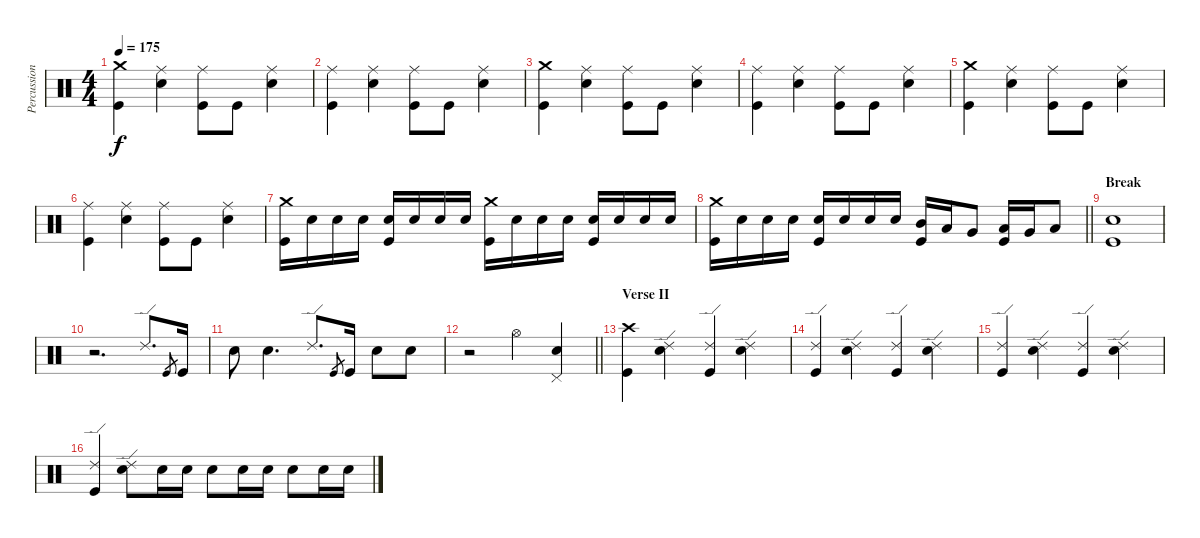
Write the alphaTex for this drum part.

\track ("Percussion" "Percussion") {instrument percussion}
\staff {score}
\articulation defaults
\ts (4 4)
\tempo 175
\clef neutral
\ks c
("Crash medium (hit)" "Kick (hit)").4{dy f} ("Ride (middle)" "Electric Snare (hit)").4 ("Ride (middle)" "Kick (hit)").8 "Kick (hit)".8 ("Ride (middle)" "Electric Snare (hit)").4 |
("Ride (middle)" "Kick (hit)").4 ("Ride (middle)" "Electric Snare (hit)").4 ("Ride (middle)" "Kick (hit)").8 "Kick (hit)".8 ("Ride (middle)" "Electric Snare (hit)").4 |
("Crash medium (hit)" "Kick (hit)").4 ("Ride (middle)" "Electric Snare (hit)").4 ("Ride (middle)" "Kick (hit)").8 "Kick (hit)".8 ("Ride (middle)" "Electric Snare (hit)").4 |
("Ride (middle)" "Kick (hit)").4 ("Ride (middle)" "Electric Snare (hit)").4 ("Ride (middle)" "Kick (hit)").8 "Kick (hit)".8 ("Ride (middle)" "Electric Snare (hit)").4 |
("Crash medium (hit)" "Kick (hit)").4 ("Ride (middle)" "Electric Snare (hit)").4 ("Ride (middle)" "Kick (hit)").8 "Kick (hit)".8 ("Ride (middle)" "Electric Snare (hit)").4 |
("Ride (middle)" "Kick (hit)").4 ("Ride (middle)" "Electric Snare (hit)").4 ("Ride (middle)" "Kick (hit)").8 "Kick (hit)".8 ("Ride (middle)" "Electric Snare (hit)").4 |
("Crash medium (hit)" "Kick (hit)").16 "Electric Snare (hit)".16 "Electric Snare (hit)".16 "Electric Snare (hit)".16 ("Electric Snare (hit)" "Kick (hit)").16 "Electric Snare (hit)".16 "Electric Snare (hit)".16 "Electric Snare (hit)".16 ("Crash medium (hit)" "Kick (hit)").16 "Electric Snare (hit)".16 "Electric Snare (hit)".16 "Electric Snare (hit)".16 ("Electric Snare (hit)" "Kick (hit)").16 "Electric Snare (hit)".16 "Electric Snare (hit)".16 "Electric Snare (hit)".16 |
\barLineRight lightlight
("Crash medium (hit)" "Kick (hit)").16 "Electric Snare (hit)".16 "Electric Snare (hit)".16 "Electric Snare (hit)".16 ("Electric Snare (hit)" "Kick (hit)").16 "Electric Snare (hit)".16 "Electric Snare (hit)".16 "Electric Snare (hit)".16 ("Mid Tom (hit)" "Kick (hit)").16 "Low Tom (hit)".16 "Very Low Tom (hit)".8 ("Low Tom (hit)" "Kick (hit)").16 "Very Low Tom (hit)".16 "Low Floor Tom (hit)".8 |
\section ("" "Break")
("Electric Snare (hit)" "Kick (hit)").1 |
r.2{d} "Ride (edge) 2".8{d} "Kick (hit)".8{gr} "Kick (hit)".16 |
"Electric Snare (hit)".8 "Electric Snare (hit)".4{d} "Ride (edge) 2".8{d} "Kick (hit)".8{gr} "Kick (hit)".16 "Electric Snare (hit)".8 "Electric Snare (hit)".8 |
\barLineRight lightlight
r.2 "Hi-Hat (open)".4 ("Pedal Hi-Hat (hit)" "Electric Snare (hit)").4 |
\section ("" "Verse II")
("Crash high (hit)" "Kick (hit)").4 ("Ride (edge) 2" "Electric Snare (hit)").4 ("Ride (edge) 2" "Kick (hit)").4 ("Ride (edge) 2" "Electric Snare (hit)").4 |
("Ride (edge) 2" "Kick (hit)").4 ("Ride (edge) 2" "Electric Snare (hit)").4 ("Ride (edge) 2" "Kick (hit)").4 ("Ride (edge) 2" "Electric Snare (hit)").4 |
("Ride (edge) 2" "Kick (hit)").4 ("Ride (edge) 2" "Electric Snare (hit)").4 ("Ride (edge) 2" "Kick (hit)").4 ("Ride (edge) 2" "Electric Snare (hit)").4 |
("Ride (edge) 2" "Kick (hit)").4 ("Ride (edge) 2" "Electric Snare (hit)").8 "Electric Snare (hit)".16 "Electric Snare (hit)".16 "Electric Snare (hit)".8 "Electric Snare (hit)".16 "Electric Snare (hit)".16 "Electric Snare (hit)".8 "Electric Snare (hit)".16 "Electric Snare (hit)".16
